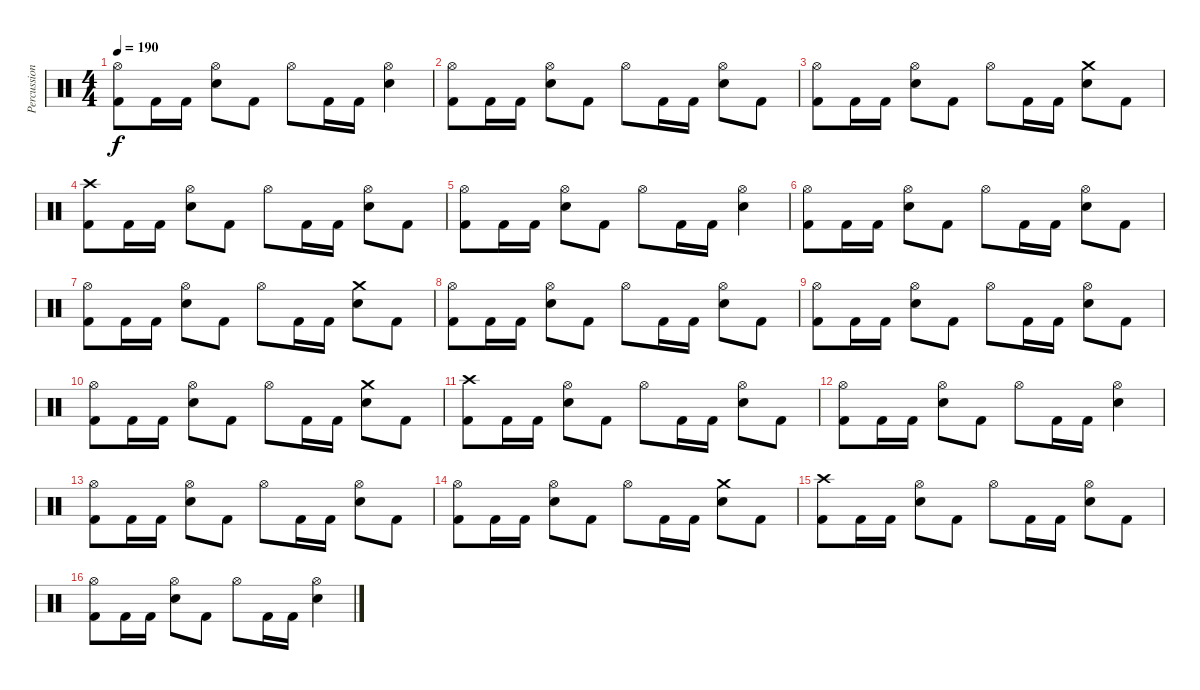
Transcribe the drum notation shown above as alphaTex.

\track ("Percussion" "Percussion") {instrument percussion}
\staff {score}
\articulation defaults
\ts (4 4)
\tempo 190
\clef neutral
\ks c
("Hi-Hat (open)" "Kick (hit) 2").8{dy f} "Kick (hit) 2".16 "Kick (hit) 2".16 ("Hi-Hat (open)" "Snare (hit) 2").8 "Kick (hit) 2".8 "Hi-Hat (open)".8 "Kick (hit) 2".16 "Kick (hit) 2".16 ("Hi-Hat (open)" "Snare (hit) 2").4 |
("Hi-Hat (open)" "Kick (hit) 2").8 "Kick (hit) 2".16 "Kick (hit) 2".16 ("Hi-Hat (open)" "Snare (hit) 2").8 "Kick (hit) 2".8 "Hi-Hat (open)".8 "Kick (hit) 2".16 "Kick (hit) 2".16 ("Hi-Hat (open)" "Snare (hit) 2").8 "Kick (hit) 2".8 |
("Hi-Hat (open)" "Kick (hit) 2").8 "Kick (hit) 2".16 "Kick (hit) 2".16 ("Hi-Hat (open)" "Snare (hit) 2").8 "Kick (hit) 2".8 "Hi-Hat (open)".8 "Kick (hit) 2".16 "Kick (hit) 2".16 ("Crash medium (hit)" "Snare (hit) 2").8 "Kick (hit) 2".8 |
("Crash high (hit)" "Kick (hit) 2").8 "Kick (hit) 2".16 "Kick (hit) 2".16 ("Hi-Hat (open)" "Snare (hit) 2").8 "Kick (hit) 2".8 "Hi-Hat (open)".8 "Kick (hit) 2".16 "Kick (hit) 2".16 ("Hi-Hat (open)" "Snare (hit) 2").8 "Kick (hit) 2".8 |
("Hi-Hat (open)" "Kick (hit) 2").8 "Kick (hit) 2".16 "Kick (hit) 2".16 ("Hi-Hat (open)" "Snare (hit) 2").8 "Kick (hit) 2".8 "Hi-Hat (open)".8 "Kick (hit) 2".16 "Kick (hit) 2".16 ("Hi-Hat (open)" "Snare (hit) 2").4 |
("Hi-Hat (open)" "Kick (hit) 2").8 "Kick (hit) 2".16 "Kick (hit) 2".16 ("Hi-Hat (open)" "Snare (hit) 2").8 "Kick (hit) 2".8 "Hi-Hat (open)".8 "Kick (hit) 2".16 "Kick (hit) 2".16 ("Hi-Hat (open)" "Snare (hit) 2").8 "Kick (hit) 2".8 |
("Hi-Hat (open)" "Kick (hit) 2").8 "Kick (hit) 2".16 "Kick (hit) 2".16 ("Hi-Hat (open)" "Snare (hit) 2").8 "Kick (hit) 2".8 "Hi-Hat (open)".8 "Kick (hit) 2".16 "Kick (hit) 2".16 ("Crash medium (hit)" "Snare (hit) 2").8 "Kick (hit) 2".8 |
("Hi-Hat (open)" "Kick (hit) 2").8 "Kick (hit) 2".16 "Kick (hit) 2".16 ("Hi-Hat (open)" "Snare (hit) 2").8 "Kick (hit) 2".8 "Hi-Hat (open)".8 "Kick (hit) 2".16 "Kick (hit) 2".16 ("Hi-Hat (open)" "Snare (hit) 2").8 "Kick (hit) 2".8 |
("Hi-Hat (open)" "Kick (hit) 2").8 "Kick (hit) 2".16 "Kick (hit) 2".16 ("Hi-Hat (open)" "Snare (hit) 2").8 "Kick (hit) 2".8 "Hi-Hat (open)".8 "Kick (hit) 2".16 "Kick (hit) 2".16 ("Hi-Hat (open)" "Snare (hit) 2").8 "Kick (hit) 2".8 |
("Hi-Hat (open)" "Kick (hit) 2").8 "Kick (hit) 2".16 "Kick (hit) 2".16 ("Hi-Hat (open)" "Snare (hit) 2").8 "Kick (hit) 2".8 "Hi-Hat (open)".8 "Kick (hit) 2".16 "Kick (hit) 2".16 ("Crash medium (hit)" "Snare (hit) 2").8 "Kick (hit) 2".8 |
("Crash high (hit)" "Kick (hit) 2").8 "Kick (hit) 2".16 "Kick (hit) 2".16 ("Hi-Hat (open)" "Snare (hit) 2").8 "Kick (hit) 2".8 "Hi-Hat (open)".8 "Kick (hit) 2".16 "Kick (hit) 2".16 ("Hi-Hat (open)" "Snare (hit) 2").8 "Kick (hit) 2".8 |
("Hi-Hat (open)" "Kick (hit) 2").8 "Kick (hit) 2".16 "Kick (hit) 2".16 ("Hi-Hat (open)" "Snare (hit) 2").8 "Kick (hit) 2".8 "Hi-Hat (open)".8 "Kick (hit) 2".16 "Kick (hit) 2".16 ("Hi-Hat (open)" "Snare (hit) 2").4 |
("Hi-Hat (open)" "Kick (hit) 2").8 "Kick (hit) 2".16 "Kick (hit) 2".16 ("Hi-Hat (open)" "Snare (hit) 2").8 "Kick (hit) 2".8 "Hi-Hat (open)".8 "Kick (hit) 2".16 "Kick (hit) 2".16 ("Hi-Hat (open)" "Snare (hit) 2").8 "Kick (hit) 2".8 |
("Hi-Hat (open)" "Kick (hit) 2").8 "Kick (hit) 2".16 "Kick (hit) 2".16 ("Hi-Hat (open)" "Snare (hit) 2").8 "Kick (hit) 2".8 "Hi-Hat (open)".8 "Kick (hit) 2".16 "Kick (hit) 2".16 ("Crash medium (hit)" "Snare (hit) 2").8 "Kick (hit) 2".8 |
("Crash high (hit)" "Kick (hit) 2").8 "Kick (hit) 2".16 "Kick (hit) 2".16 ("Hi-Hat (open)" "Snare (hit) 2").8 "Kick (hit) 2".8 "Hi-Hat (open)".8 "Kick (hit) 2".16 "Kick (hit) 2".16 ("Hi-Hat (open)" "Snare (hit) 2").8 "Kick (hit) 2".8 |
("Hi-Hat (open)" "Kick (hit) 2").8 "Kick (hit) 2".16 "Kick (hit) 2".16 ("Hi-Hat (open)" "Snare (hit) 2").8 "Kick (hit) 2".8 "Hi-Hat (open)".8 "Kick (hit) 2".16 "Kick (hit) 2".16 ("Hi-Hat (open)" "Snare (hit) 2").4
